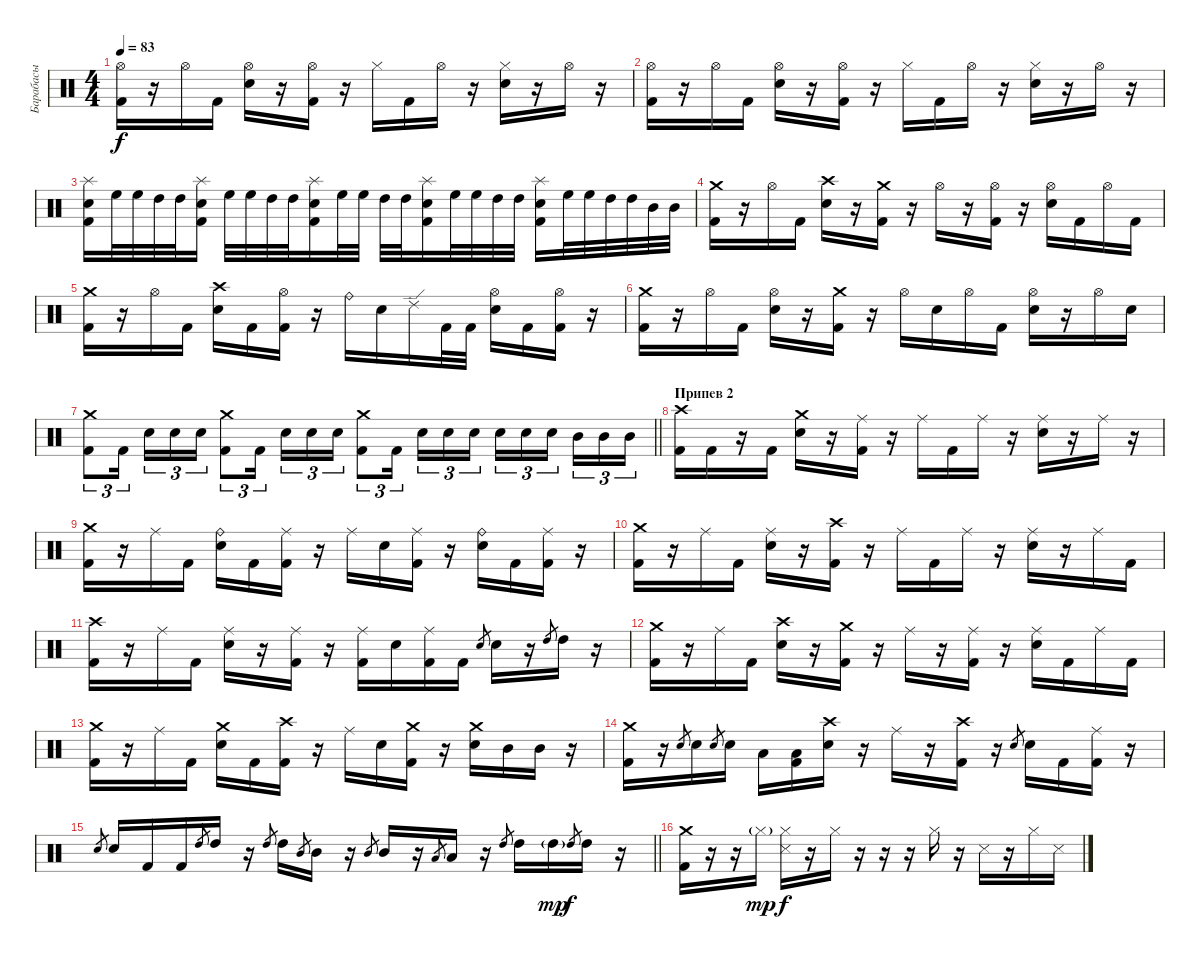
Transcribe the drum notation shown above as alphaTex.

\track ("Барабасы" "Барабасы") {instrument percussion}
\staff {score}
\articulation defaults
\ts (4 4)
\tempo 83
\clef neutral
\ks c
("Kick (hit) 2" "Hi-Hat (open)").16{dy f} r.16 "Hi-Hat (open)".16 "Kick (hit) 2".16 ("Electric Snare (hit)" "Hi-Hat (open)").16 r.16 ("Kick (hit) 2" "Hi-Hat (open)").16 r.16 "Hi-Hat (closed)".16 "Kick (hit) 2".16 "Hi-Hat (open)".16 r.16 ("Electric Snare (hit)" "Hi-Hat (closed)").16 r.16 "Hi-Hat (open)".16 r.16 |
("Hi-Hat (open)" "Kick (hit) 2").16 r.16 "Hi-Hat (open)".16 "Kick (hit) 2".16 ("Electric Snare (hit)" "Hi-Hat (open)").16 r.16 ("Hi-Hat (open)" "Kick (hit) 2").16 r.16 "Hi-Hat (closed)".16 "Kick (hit) 2".16 "Hi-Hat (open)".16 r.16 ("Electric Snare (hit)" "Hi-Hat (closed)").16 r.16 "Hi-Hat (open)".16 r.16 |
("Electric Snare (hit)" "Splash (hit)" "Kick (hit) 2").16 "High Floor Tom (hit)".32 "High Floor Tom (hit)".32 "High Tom (hit)".32 "High Tom (hit)".32 ("Electric Snare (hit)" "Splash (hit)" "Kick (hit) 2").16 "High Floor Tom (hit)".32 "High Floor Tom (hit)".32 "High Tom (hit)".32 "High Tom (hit)".32 ("Electric Snare (hit)" "Splash (hit)" "Kick (hit) 2").16 "High Floor Tom (hit)".32 "High Floor Tom (hit)".32 "High Tom (hit)".32 "High Tom (hit)".32 ("Kick (hit) 2" "Electric Snare (hit)" "Splash (hit)").16 "High Floor Tom (hit)".32 "High Floor Tom (hit)".32 "High Tom (hit)".32 "High Tom (hit)".32 ("Kick (hit) 2" "Electric Snare (hit)" "Splash (hit)").16 "High Floor Tom (hit)".32 "High Floor Tom (hit)".32 "High Tom (hit)".32 "High Tom (hit)".32 "Mid Tom (hit)".32 "Mid Tom (hit)".32 |
("Kick (hit) 2" "Crash medium (hit)").16 r.16 "Hi-Hat (open)".16 "Kick (hit) 2".16 ("Electric Snare (hit)" "Crash high (hit)").16 r.16 ("Kick (hit) 2" "Crash medium (hit)").16 r.16 "Hi-Hat (open)".16 r.16 ("Kick (hit) 2" "Hi-Hat (open)").16 r.16 ("Electric Snare (hit)" "Hi-Hat (open)").16 "Kick (hit) 2".16 "Hi-Hat (open)".16 "Kick (hit) 2".16 |
("Kick (hit) 2" "Crash medium (hit)").16 r.16 "Hi-Hat (open)".16 "Kick (hit) 2".16 ("Electric Snare (hit)" "Crash high (hit)").16 "Kick (hit) 2".16 ("Kick (hit) 2" "Hi-Hat (open)").16 r.16 "Ride (bell)".16 "Electric Snare (hit)".16 "Ride (edge) 2".16 "Kick (hit) 2".32 "Kick (hit) 2".32 ("Electric Snare (hit)" "Hi-Hat (open)").16 "Kick (hit) 2".16 ("Hi-Hat (open)" "Kick (hit) 2").16 r.16 |
("Kick (hit) 2" "Crash medium (hit)").16 r.16 "Hi-Hat (open)".16 "Kick (hit) 2".16 ("Electric Snare (hit)" "Hi-Hat (open)").16 r.16 ("Kick (hit) 2" "Crash medium (hit)").16 r.16 "Hi-Hat (open)".16 "Electric Snare (hit)".16 "Hi-Hat (open)".16 "Kick (hit) 2".16 ("Electric Snare (hit)" "Hi-Hat (open)").16 r.16 "Hi-Hat (open)".16 "Electric Snare (hit)".16 |
\barLineRight lightlight
("Kick (hit) 2" "Crash medium (hit)").8{tu (3 2)} "Kick (hit) 2".16{tu (3 2) beam splitsecondary} "Electric Snare (hit)".16{tu (3 2)} "Electric Snare (hit)".16{tu (3 2)} "Electric Snare (hit)".16{tu (3 2)} ("Kick (hit) 2" "Crash medium (hit)").8{tu (3 2)} "Kick (hit) 2".16{tu (3 2) beam splitsecondary} "Electric Snare (hit)".16{tu (3 2)} "Electric Snare (hit)".16{tu (3 2)} "Electric Snare (hit)".16{tu (3 2)} ("Kick (hit) 2" "Crash medium (hit)").8{tu (3 2)} "Kick (hit) 2".16{tu (3 2) beam splitsecondary} "Electric Snare (hit)".16{tu (3 2)} "Electric Snare (hit)".16{tu (3 2)} "Electric Snare (hit)".16{tu (3 2)} "Electric Snare (hit)".16{tu (3 2)} "Electric Snare (hit)".16{tu (3 2)} "Electric Snare (hit)".16{tu (3 2) beam splitsecondary} "Mid Tom (hit)".16{tu (3 2)} "Mid Tom (hit)".16{tu (3 2)} "Mid Tom (hit)".16{tu (3 2)} |
\section ("" "Припев 2")
("Crash high (hit)" "Kick (hit) 2").16 "Kick (hit) 2".16 r.16 "Kick (hit) 2".16 ("Crash medium (hit)" "Electric Snare (hit)").16 r.16 ("Kick (hit) 2" "Ride (middle)").16 r.16 "Ride (middle)".16 "Kick (hit) 2".16 "Ride (middle)".16 r.16 ("Electric Snare (hit)" "Ride (middle)").16 r.16 "Ride (middle)".16 r.16 |
("Kick (hit) 2" "Crash medium (hit)").16 r.16 "Ride (middle)".16 "Kick (hit) 2".16 ("Electric Snare (hit)" "Ride (bell)").16 "Kick (hit) 2".16 ("Kick (hit) 2" "Ride (middle)").16 r.16 "Ride (middle)".16 "Electric Snare (hit)".16 ("Ride (middle)" "Kick (hit) 2").16 r.16 ("Electric Snare (hit)" "Ride (bell)").16 "Kick (hit) 2".16 ("Kick (hit) 2" "Ride (middle)").16 r.16 |
("Kick (hit) 2" "Crash medium (hit)").16 r.16 "Ride (middle)".16 "Kick (hit) 2".16 ("Electric Snare (hit)" "Ride (middle)").16 r.16 ("Kick (hit) 2" "Crash high (hit)").16 r.16 "Ride (middle)".16 "Kick (hit) 2".16 "Ride (middle)".16 r.16 ("Electric Snare (hit)" "Ride (middle)").16 r.16 "Ride (middle)".16 "Kick (hit) 2".16 |
("Kick (hit) 2" "Crash high (hit)").16 r.16 "Ride (middle)".16 "Kick (hit) 2".16 ("Electric Snare (hit)" "Ride (middle)").16 r.16 ("Kick (hit) 2" "Ride (middle)").16 r.16 ("Kick (hit) 2" "Ride (middle)").16 "Electric Snare (hit)".16 ("Kick (hit) 2" "Ride (middle)").16 "Kick (hit) 2".16 "Electric Snare (hit)".8{gr} "Electric Snare (hit)".16 r.16 "High Tom (hit)".8{gr} "High Tom (hit)".16 r.16 |
("Kick (hit) 2" "Crash medium (hit)").16 r.16 "Ride (middle)".16 "Kick (hit) 2".16 ("Electric Snare (hit)" "Crash high (hit)").16 r.16 ("Kick (hit) 2" "Crash medium (hit)").16 r.16 "Ride (middle)".16 r.16 ("Kick (hit) 2" "Ride (middle)").16 r.16 ("Electric Snare (hit)" "Ride (middle)").16 "Kick (hit) 2".16 "Ride (middle)".16 "Kick (hit) 2".16 |
("Kick (hit) 2" "Crash medium (hit)").16 r.16 "Ride (middle)".16 "Kick (hit) 2".16 ("Crash medium (hit)" "Electric Snare (hit)").16 "Kick (hit) 2".16 ("Kick (hit) 2" "Crash high (hit)").16 r.16 "Ride (middle)".16 "Electric Snare (hit)".16 ("Kick (hit) 2" "Crash medium (hit)").16 r.16 ("Electric Snare (hit)" "Crash medium (hit)").16 "Mid Tom (hit)".16 "Mid Tom (hit)".16 r.16 |
("Kick (hit) 2" "Crash medium (hit)").16 r.16 "Electric Snare (hit)".8{gr} "Electric Snare (hit)".16 "Electric Snare (hit)".8{gr} "Electric Snare (hit)".16 "Low Tom (hit)".16 ("Low Tom (hit)" "Kick (hit) 2").16 ("Electric Snare (hit)" "Crash high (hit)").16 r.16 "Ride (middle)".16 r.16 ("Crash high (hit)" "Kick (hit) 2").16 r.16 "Electric Snare (hit)".8{gr} "Electric Snare (hit)".16 "Kick (hit) 2".16 ("Kick (hit) 2" "Ride (middle)").16 r.16 |
\barLineRight lightlight "Electric Snare (hit)".8{gr} "Electric Snare (hit)".16 "Kick (hit) 2".16 "Kick (hit) 2".16 "High Tom (hit)".8{gr} "High Tom (hit)".16
r.16 "High Tom (hit)".8{gr} "High Tom (hit)".16 "Mid Tom (hit)".8{gr} "Mid Tom (hit)".16 r.16 "Mid Tom (hit)".8{gr} "Mid Tom (hit)".16 r.16 "Low Tom (hit)".8{gr} "Low Tom (hit)".16 r.16 "High Tom (hit)".8{gr} "High Tom (hit)".16 "High Tom (hit)"{g}.16{dy mp} "High Tom (hit)".8{gr dy f} "High Tom (hit)".16 r.16 |
("Kick (hit) 2" "Crash medium (hit)").16 r.16 r.16 "Hi-Hat (closed)"{g}.16{dy mp} ("Snare (side stick) 3" "Hi-Hat (closed)").16{dy f} r.16 "Hi-Hat (closed)".16 r.16 r.16 r.16 "Hi-Hat (closed)".16 r.16 "Snare (side stick) 3".16 r.16 "Hi-Hat (closed)".16 "Snare (side stick) 3".16
